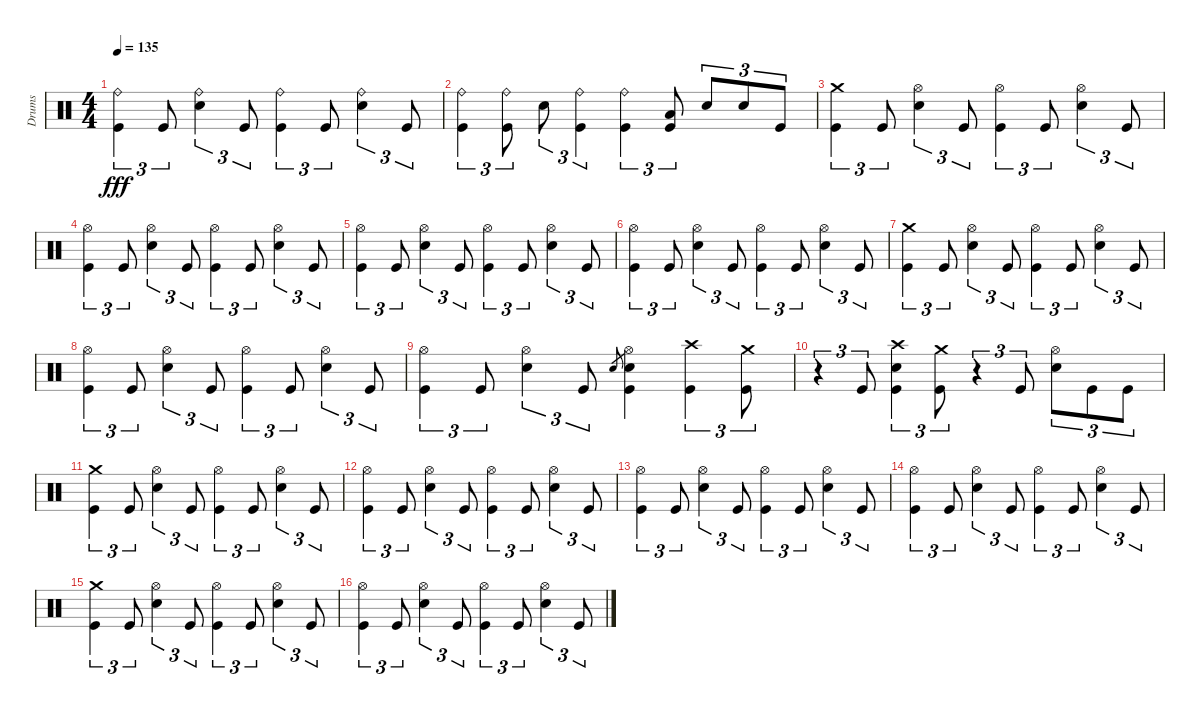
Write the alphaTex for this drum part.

\track ("Drums" "Drums") {instrument percussion}
\staff {score}
\articulation defaults
\ts (4 4)
\tempo 135
\clef neutral
\ks c
("Ride (bell)" "Kick (hit)").4{tu (3 2) dy fff} "Kick (hit)".8{tu (3 2)} ("Ride (bell)" "Snare (hit) 2").4{tu (3 2)} "Kick (hit)".8{tu (3 2)} ("Ride (bell)" "Kick (hit)").4{tu (3 2)} "Kick (hit)".8{tu (3 2)} ("Ride (bell)" "Snare (hit) 2").4{tu (3 2)} "Kick (hit)".8{tu (3 2)} |
("Ride (bell)" "Kick (hit)").4{tu (3 2)} ("Ride (bell)" "Kick (hit)").8{tu (3 2)} "Snare (hit) 2".8{tu (3 2)} ("Ride (bell)" "Kick (hit)").4{tu (3 2)} ("Ride (bell)" "Kick (hit)").4{tu (3 2)} ("Low Tom (hit)" "Kick (hit)").8{tu (3 2)} "Snare (hit) 2".8{tu (3 2)} "Snare (hit) 2".8{tu (3 2)} "Kick (hit)".8{tu (3 2)} |
("Crash medium (hit)" "Kick (hit)").4{tu (3 2)} "Kick (hit)".8{tu (3 2)} ("Hi-Hat (open)" "Snare (hit) 2").4{tu (3 2)} "Kick (hit)".8{tu (3 2)} ("Hi-Hat (open)" "Kick (hit)").4{tu (3 2)} "Kick (hit)".8{tu (3 2)} ("Hi-Hat (open)" "Snare (hit) 2").4{tu (3 2)} "Kick (hit)".8{tu (3 2)} |
("Hi-Hat (open)" "Kick (hit)").4{tu (3 2)} "Kick (hit)".8{tu (3 2)} ("Hi-Hat (open)" "Snare (hit) 2").4{tu (3 2)} "Kick (hit)".8{tu (3 2)} ("Hi-Hat (open)" "Kick (hit)").4{tu (3 2)} "Kick (hit)".8{tu (3 2)} ("Hi-Hat (open)" "Snare (hit) 2").4{tu (3 2)} "Kick (hit)".8{tu (3 2)} |
("Hi-Hat (open)" "Kick (hit)").4{tu (3 2)} "Kick (hit)".8{tu (3 2)} ("Hi-Hat (open)" "Snare (hit) 2").4{tu (3 2)} "Kick (hit)".8{tu (3 2)} ("Hi-Hat (open)" "Kick (hit)").4{tu (3 2)} "Kick (hit)".8{tu (3 2)} ("Hi-Hat (open)" "Snare (hit) 2").4{tu (3 2)} "Kick (hit)".8{tu (3 2)} |
("Hi-Hat (open)" "Kick (hit)").4{tu (3 2)} "Kick (hit)".8{tu (3 2)} ("Hi-Hat (open)" "Snare (hit) 2").4{tu (3 2)} "Kick (hit)".8{tu (3 2)} ("Hi-Hat (open)" "Kick (hit)").4{tu (3 2)} "Kick (hit)".8{tu (3 2)} ("Hi-Hat (open)" "Snare (hit) 2").4{tu (3 2)} "Kick (hit)".8{tu (3 2)} |
("Crash medium (hit)" "Kick (hit)").4{tu (3 2)} "Kick (hit)".8{tu (3 2)} ("Hi-Hat (open)" "Snare (hit) 2").4{tu (3 2)} "Kick (hit)".8{tu (3 2)} ("Hi-Hat (open)" "Kick (hit)").4{tu (3 2)} "Kick (hit)".8{tu (3 2)} ("Hi-Hat (open)" "Snare (hit) 2").4{tu (3 2)} "Kick (hit)".8{tu (3 2)} |
("Hi-Hat (open)" "Kick (hit)").4{tu (3 2)} "Kick (hit)".8{tu (3 2)} ("Hi-Hat (open)" "Snare (hit) 2").4{tu (3 2)} "Kick (hit)".8{tu (3 2)} ("Hi-Hat (open)" "Kick (hit)").4{tu (3 2)} "Kick (hit)".8{tu (3 2)} ("Hi-Hat (open)" "Snare (hit) 2").4{tu (3 2)} "Kick (hit)".8{tu (3 2)} |
("Hi-Hat (open)" "Kick (hit)").4{tu (3 2)} "Kick (hit)".8{tu (3 2)} ("Hi-Hat (open)" "Snare (hit) 2").4{tu (3 2)} "Kick (hit)".8{tu (3 2)} "Snare (hit) 2".8{gr} ("Hi-Hat (open)" "Snare (hit) 2" "Kick (hit)").4 ("Crash high (hit)" "Kick (hit)").4{tu (3 2)} ("Crash medium (hit)" "Kick (hit)").8{tu (3 2)} |
r.4{tu (3 2)} "Kick (hit)".8{tu (3 2)} ("Crash high (hit)" "Snare (hit) 2" "Kick (hit)").4{tu (3 2)} ("Crash medium (hit)" "Kick (hit)").8{tu (3 2)} r.4{tu (3 2)} "Kick (hit)".8{tu (3 2)} ("Hi-Hat (open)" "Snare (hit) 2").8{tu (3 2)} "Kick (hit)".8{tu (3 2)} "Kick (hit)".8{tu (3 2)} |
("Crash medium (hit)" "Kick (hit)").4{tu (3 2)} "Kick (hit)".8{tu (3 2)} ("Hi-Hat (open)" "Snare (hit) 2").4{tu (3 2)} "Kick (hit)".8{tu (3 2)} ("Hi-Hat (open)" "Kick (hit)").4{tu (3 2)} "Kick (hit)".8{tu (3 2)} ("Hi-Hat (open)" "Snare (hit) 2").4{tu (3 2)} "Kick (hit)".8{tu (3 2)} |
("Hi-Hat (open)" "Kick (hit)").4{tu (3 2)} "Kick (hit)".8{tu (3 2)} ("Hi-Hat (open)" "Snare (hit) 2").4{tu (3 2)} "Kick (hit)".8{tu (3 2)} ("Hi-Hat (open)" "Kick (hit)").4{tu (3 2)} "Kick (hit)".8{tu (3 2)} ("Hi-Hat (open)" "Snare (hit) 2").4{tu (3 2)} "Kick (hit)".8{tu (3 2)} |
("Hi-Hat (open)" "Kick (hit)").4{tu (3 2)} "Kick (hit)".8{tu (3 2)} ("Hi-Hat (open)" "Snare (hit) 2").4{tu (3 2)} "Kick (hit)".8{tu (3 2)} ("Hi-Hat (open)" "Kick (hit)").4{tu (3 2)} "Kick (hit)".8{tu (3 2)} ("Hi-Hat (open)" "Snare (hit) 2").4{tu (3 2)} "Kick (hit)".8{tu (3 2)} |
("Hi-Hat (open)" "Kick (hit)").4{tu (3 2)} "Kick (hit)".8{tu (3 2)} ("Hi-Hat (open)" "Snare (hit) 2").4{tu (3 2)} "Kick (hit)".8{tu (3 2)} ("Hi-Hat (open)" "Kick (hit)").4{tu (3 2)} "Kick (hit)".8{tu (3 2)} ("Hi-Hat (open)" "Snare (hit) 2").4{tu (3 2)} "Kick (hit)".8{tu (3 2)} |
("Crash medium (hit)" "Kick (hit)").4{tu (3 2)} "Kick (hit)".8{tu (3 2)} ("Hi-Hat (open)" "Snare (hit) 2").4{tu (3 2)} "Kick (hit)".8{tu (3 2)} ("Hi-Hat (open)" "Kick (hit)").4{tu (3 2)} "Kick (hit)".8{tu (3 2)} ("Hi-Hat (open)" "Snare (hit) 2").4{tu (3 2)} "Kick (hit)".8{tu (3 2)} |
("Hi-Hat (open)" "Kick (hit)").4{tu (3 2)} "Kick (hit)".8{tu (3 2)} ("Hi-Hat (open)" "Snare (hit) 2").4{tu (3 2)} "Kick (hit)".8{tu (3 2)} ("Hi-Hat (open)" "Kick (hit)").4{tu (3 2)} "Kick (hit)".8{tu (3 2)} ("Hi-Hat (open)" "Snare (hit) 2").4{tu (3 2)} "Kick (hit)".8{tu (3 2)}
